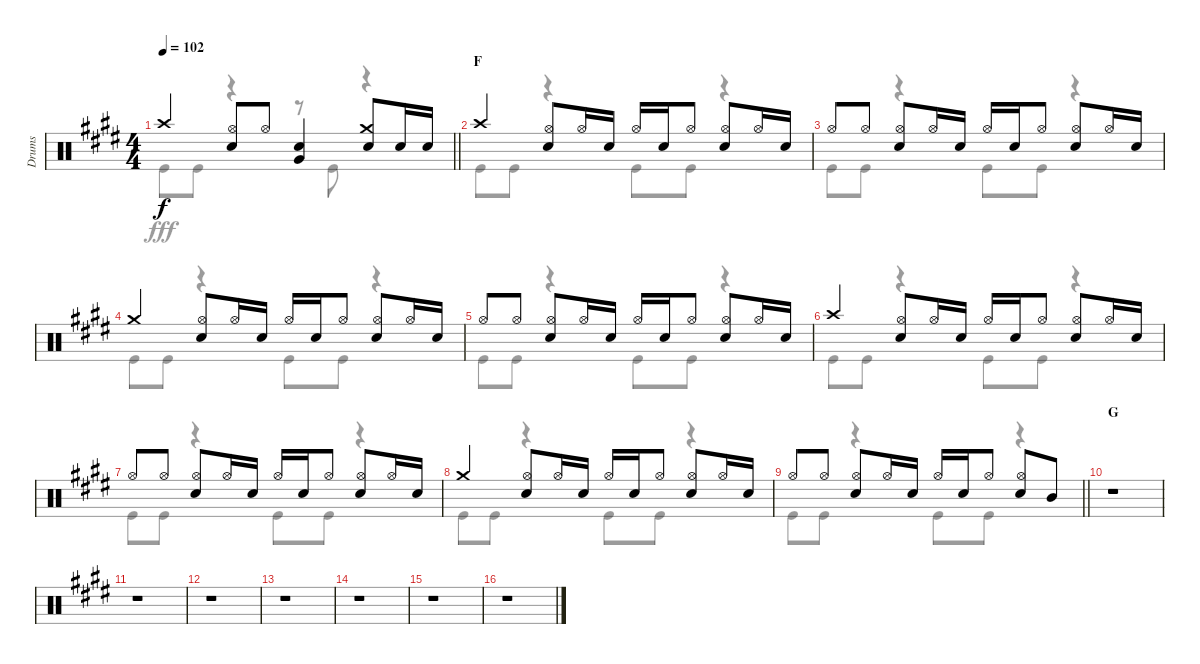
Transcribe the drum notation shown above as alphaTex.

\track ("Drums" "Drums") {instrument percussion}
\staff {score}
\articulation defaults
\voice
\ts (4 4)
\tempo 102
\clef neutral
\barLineRight lightlight
\ks e "Crash high (hit)".4{dy f}
("Hi-Hat (open)" "Snare (hit) 2").8 "Hi-Hat (open)".8 ("Snare (hit) 2" "Very Low Tom (hit)").4 ("Crash medium (hit)" "Snare (hit) 2").8 "Snare (hit) 2".16 "Snare (hit) 2".16 |
\section ("" "F")
"Crash high (hit)".4 ("Hi-Hat (open)" "Snare (hit) 2").8 "Hi-Hat (open)".16 "Snare (hit) 2".16 "Hi-Hat (open)".16 "Snare (hit) 2".16 "Hi-Hat (open)".8 ("Hi-Hat (open)" "Snare (hit) 2").8 "Hi-Hat (open)".16 "Snare (hit) 2".16 |
"Hi-Hat (open)".8 "Hi-Hat (open)".8 ("Hi-Hat (open)" "Snare (hit) 2").8 "Hi-Hat (open)".16 "Snare (hit) 2".16 "Hi-Hat (open)".16 "Snare (hit) 2".16 "Hi-Hat (open)".8 ("Hi-Hat (open)" "Snare (hit) 2").8 "Hi-Hat (open)".16 "Snare (hit) 2".16 |
"Crash medium (hit)".4 ("Hi-Hat (open)" "Snare (hit) 2").8 "Hi-Hat (open)".16 "Snare (hit) 2".16 "Hi-Hat (open)".16 "Snare (hit) 2".16 "Hi-Hat (open)".8 ("Hi-Hat (open)" "Snare (hit) 2").8 "Hi-Hat (open)".16 "Snare (hit) 2".16 |
"Hi-Hat (open)".8 "Hi-Hat (open)".8 ("Hi-Hat (open)" "Snare (hit) 2").8 "Hi-Hat (open)".16 "Snare (hit) 2".16 "Hi-Hat (open)".16 "Snare (hit) 2".16 "Hi-Hat (open)".8 ("Hi-Hat (open)" "Snare (hit) 2").8 "Hi-Hat (open)".16 "Snare (hit) 2".16 |
"Crash high (hit)".4 ("Hi-Hat (open)" "Snare (hit) 2").8 "Hi-Hat (open)".16 "Snare (hit) 2".16 "Hi-Hat (open)".16 "Snare (hit) 2".16 "Hi-Hat (open)".8 ("Hi-Hat (open)" "Snare (hit) 2").8 "Hi-Hat (open)".16 "Snare (hit) 2".16 |
"Hi-Hat (open)".8 "Hi-Hat (open)".8 ("Hi-Hat (open)" "Snare (hit) 2").8 "Hi-Hat (open)".16 "Snare (hit) 2".16 "Hi-Hat (open)".16 "Snare (hit) 2".16 "Hi-Hat (open)".8 ("Hi-Hat (open)" "Snare (hit) 2").8 "Hi-Hat (open)".16 "Snare (hit) 2".16 |
"Crash medium (hit)".4 ("Hi-Hat (open)" "Snare (hit) 2").8 "Hi-Hat (open)".16 "Snare (hit) 2".16 "Hi-Hat (open)".16 "Snare (hit) 2".16 "Hi-Hat (open)".8 ("Hi-Hat (open)" "Snare (hit) 2").8 "Hi-Hat (open)".16 "Snare (hit) 2".16 |
\barLineRight lightlight "Hi-Hat (open)".8 "Hi-Hat (open)".8
("Hi-Hat (open)" "Snare (hit) 2").8 "Hi-Hat (open)".16 "Snare (hit) 2".16 "Hi-Hat (open)".16 "Snare (hit) 2".16 "Hi-Hat (open)".8 ("Hi-Hat (open)" "Snare (hit) 2").8 "Mid Tom (hit)".8 |
\section ("" "G")
r.1 |
r.1 |
r.1 |
r.1 |
r.1 |
r.1 |
r.1
\voice
\clef neutral
\ottava regular
\simile none
\barLineRight lightlight
\ks e "Kick (hit)".8{dy fff} "Kick (hit)".8
r.4 r.8 "Kick (hit)".8 r.4 |
"Kick (hit)".8 "Kick (hit)".8 r.4 "Kick (hit)".8 "Kick (hit)".8 r.4 |
"Kick (hit)".8 "Kick (hit)".8 r.4 "Kick (hit)".8 "Kick (hit)".8 r.4 |
"Kick (hit)".8 "Kick (hit)".8 r.4 "Kick (hit)".8 "Kick (hit)".8 r.4 |
"Kick (hit)".8 "Kick (hit)".8 r.4 "Kick (hit)".8 "Kick (hit)".8 r.4 |
"Kick (hit)".8 "Kick (hit)".8 r.4 "Kick (hit)".8 "Kick (hit)".8 r.4 |
"Kick (hit)".8 "Kick (hit)".8 r.4 "Kick (hit)".8 "Kick (hit)".8 r.4 |
"Kick (hit)".8 "Kick (hit)".8 r.4 "Kick (hit)".8 "Kick (hit)".8 r.4 |
\barLineRight lightlight "Kick (hit)".8 "Kick (hit)".8
r.4 "Kick (hit)".8 "Kick (hit)".8 r.4 |
r.1 |
r.1 |
r.1 |
r.1 |
r.1 |
r.1 |
r.1
